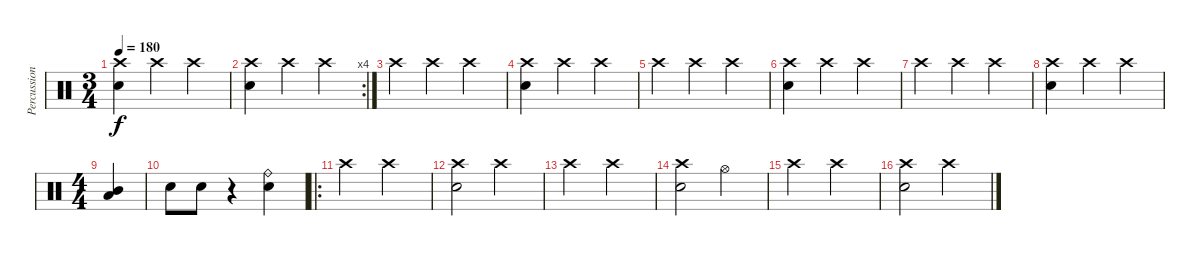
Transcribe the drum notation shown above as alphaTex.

\track ("Percussion" "Percussion") {instrument percussion}
\staff {score}
\articulation defaults
\ts (3 4)
\tempo 180
\clef neutral
\ks c
("Crash high (hit)" "Snare (hit) 2").4{dy f} "Crash high (hit)".4 "Crash high (hit)".4 |
\rc 4
("Crash high (hit)" "Snare (hit) 2").4 "Crash high (hit)".4 "Crash high (hit)".4 |
"Crash high (hit)".4 "Crash high (hit)".4 "Crash high (hit)".4 |
("Crash high (hit)" "Snare (hit) 2").4 "Crash high (hit)".4 "Crash high (hit)".4 |
"Crash high (hit)".4 "Crash high (hit)".4 "Crash high (hit)".4 |
("Crash high (hit)" "Snare (hit) 2").4 "Crash high (hit)".4 "Crash high (hit)".4 |
"Crash high (hit)".4 "Crash high (hit)".4 "Crash high (hit)".4 |
("Crash high (hit)" "Snare (hit) 2").4 "Crash high (hit)".4 "Crash high (hit)".4 |
\ts (4 4)
("Low Floor Tom (hit)" "Mid Tom (hit)").4 |
"Snare (hit) 2".8 "Snare (hit) 2".8 r.4 ("Ride (bell)" "Snare (hit) 2").4 |
\ro "Crash high (hit)".2 "Crash high (hit)".2
|
("Crash high (hit)" "Snare (hit) 2").2 "Crash high (hit)".2 |
"Crash high (hit)".2 "Crash high (hit)".2 |
("Crash high (hit)" "Snare (hit) 2").2 "Hi-Hat (open)".2 |
"Crash high (hit)".2 "Crash high (hit)".2 |
("Crash high (hit)" "Snare (hit) 2").2 "Crash high (hit)".2
